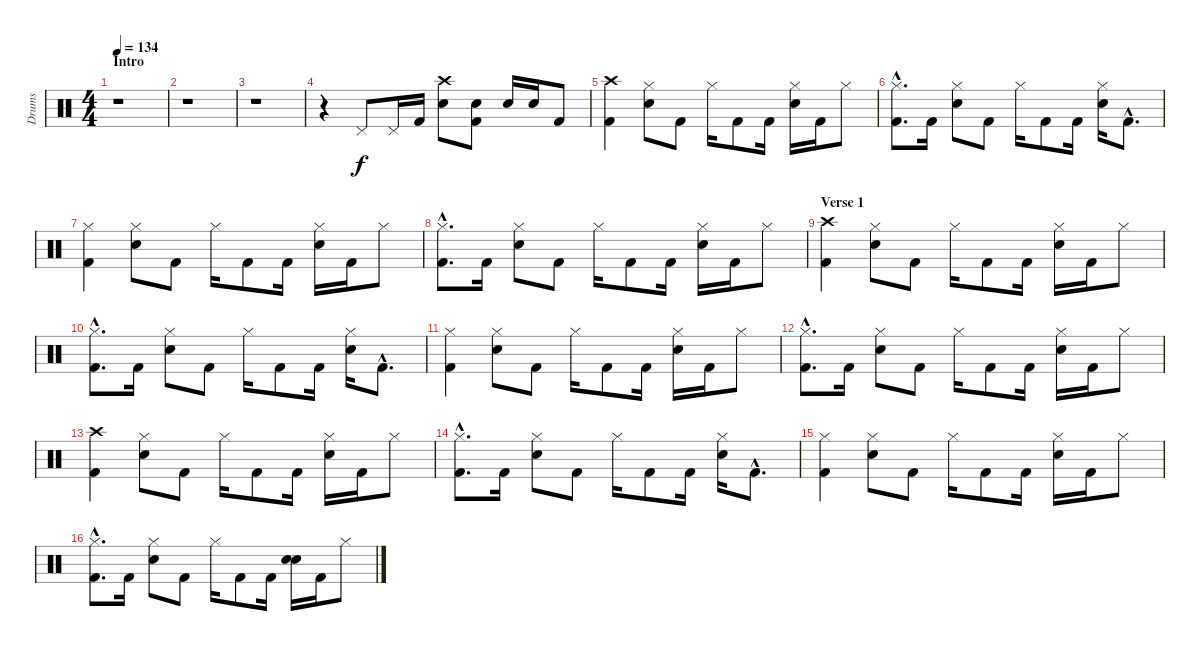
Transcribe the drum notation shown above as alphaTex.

\track ("Drums" "Drums") {instrument percussion}
\staff {score}
\articulation defaults
\ts (4 4)
\section ("" "Intro")
\tempo 134
\clef neutral
\ks c
r.1{dy f} |
r.1 |
r.1 |
r.4 "Pedal Hi-Hat (hit)".8 "Pedal Hi-Hat (hit)".16 "Kick (hit) 2".16 ("Crash high (hit)" "Electric Snare (hit)").8 ("Electric Snare (hit)" "Kick (hit) 2").8 "Electric Snare (hit)".16 "Electric Snare (hit)".16 "Kick (hit) 2".8 |
("Crash high (hit)" "Kick (hit) 2").4 ("Hi-Hat (closed)" "Electric Snare (hit)").8 "Kick (hit) 2".8 "Hi-Hat (closed)".16 "Kick (hit) 2".8 "Kick (hit) 2".16 ("Hi-Hat (closed)" "Electric Snare (hit)").16 "Kick (hit) 2".16 "Hi-Hat (closed)".8 |
("Hi-Hat (closed)"{hac} "Kick (hit) 2"{hac}).8{d} "Kick (hit) 2".16 ("Hi-Hat (closed)" "Electric Snare (hit)").8 "Kick (hit) 2".8 "Hi-Hat (closed)".16 "Kick (hit) 2".8 "Kick (hit) 2".16 ("Hi-Hat (closed)" "Electric Snare (hit)").16 "Kick (hit) 2"{hac}.8{d} |
("Hi-Hat (closed)" "Kick (hit) 2").4 ("Hi-Hat (closed)" "Electric Snare (hit)").8 "Kick (hit) 2".8 "Hi-Hat (closed)".16 "Kick (hit) 2".8 "Kick (hit) 2".16 ("Hi-Hat (closed)" "Electric Snare (hit)").16 "Kick (hit) 2".16 "Hi-Hat (closed)".8 |
("Hi-Hat (closed)"{hac} "Kick (hit) 2"{hac}).8{d} "Kick (hit) 2".16 ("Hi-Hat (closed)" "Electric Snare (hit)").8 "Kick (hit) 2".8 "Hi-Hat (closed)".16 "Kick (hit) 2".8 "Kick (hit) 2".16 ("Hi-Hat (closed)" "Electric Snare (hit)").16 "Kick (hit) 2".16 "Hi-Hat (closed)".8 |
\section ("" "Verse 1")
("Crash high (hit)" "Kick (hit) 2").4 ("Hi-Hat (closed)" "Electric Snare (hit)").8 "Kick (hit) 2".8 "Hi-Hat (closed)".16 "Kick (hit) 2".8 "Kick (hit) 2".16 ("Hi-Hat (closed)" "Electric Snare (hit)").16 "Kick (hit) 2".16 "Hi-Hat (closed)".8 |
("Hi-Hat (closed)"{hac} "Kick (hit) 2"{hac}).8{d} "Kick (hit) 2".16 ("Hi-Hat (closed)" "Electric Snare (hit)").8 "Kick (hit) 2".8 "Hi-Hat (closed)".16 "Kick (hit) 2".8 "Kick (hit) 2".16 ("Hi-Hat (closed)" "Electric Snare (hit)").16 "Kick (hit) 2"{hac}.8{d} |
("Hi-Hat (closed)" "Kick (hit) 2").4 ("Hi-Hat (closed)" "Electric Snare (hit)").8 "Kick (hit) 2".8 "Hi-Hat (closed)".16 "Kick (hit) 2".8 "Kick (hit) 2".16 ("Hi-Hat (closed)" "Electric Snare (hit)").16 "Kick (hit) 2".16 "Hi-Hat (closed)".8 |
("Hi-Hat (closed)"{hac} "Kick (hit) 2"{hac}).8{d} "Kick (hit) 2".16 ("Hi-Hat (closed)" "Electric Snare (hit)").8 "Kick (hit) 2".8 "Hi-Hat (closed)".16 "Kick (hit) 2".8 "Kick (hit) 2".16 ("Hi-Hat (closed)" "Electric Snare (hit)").16 "Kick (hit) 2".16 "Hi-Hat (closed)".8 |
("Crash high (hit)" "Kick (hit) 2").4 ("Hi-Hat (closed)" "Electric Snare (hit)").8 "Kick (hit) 2".8 "Hi-Hat (closed)".16 "Kick (hit) 2".8 "Kick (hit) 2".16 ("Hi-Hat (closed)" "Electric Snare (hit)").16 "Kick (hit) 2".16 "Hi-Hat (closed)".8 |
("Hi-Hat (closed)"{hac} "Kick (hit) 2"{hac}).8{d} "Kick (hit) 2".16 ("Hi-Hat (closed)" "Electric Snare (hit)").8 "Kick (hit) 2".8 "Hi-Hat (closed)".16 "Kick (hit) 2".8 "Kick (hit) 2".16 ("Hi-Hat (closed)" "Electric Snare (hit)").16 "Kick (hit) 2"{hac}.8{d} |
("Hi-Hat (closed)" "Kick (hit) 2").4 ("Hi-Hat (closed)" "Electric Snare (hit)").8 "Kick (hit) 2".8 "Hi-Hat (closed)".16 "Kick (hit) 2".8 "Kick (hit) 2".16 ("Hi-Hat (closed)" "Electric Snare (hit)").16 "Kick (hit) 2".16 "Hi-Hat (closed)".8 |
("Hi-Hat (closed)"{hac} "Kick (hit) 2"{hac}).8{d} "Kick (hit) 2".16 ("Hi-Hat (closed)" "Electric Snare (hit)").8 "Kick (hit) 2".8 "Hi-Hat (closed)".16 "Kick (hit) 2".8 "Kick (hit) 2".16 ("Electric Snare (hit)" "Electric Snare (hit)").16 "Kick (hit) 2".16 "Hi-Hat (closed)".8
